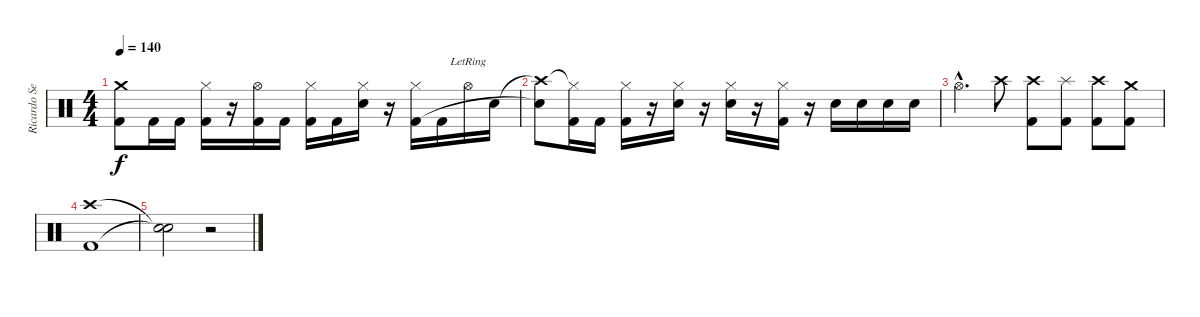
\track ("Ricardo Severino" "Ricardo Se") {instrument percussion}
\staff {score}
\articulation defaults
\ts (4 4)
\tempo 140
\clef neutral
\ks c
("Crash medium (hit)"{t} "Kick (hit) 2"{t}).8{dy f} "Kick (hit) 2".16 "Kick (hit) 2".16 ("Hi-Hat (closed)" "Kick (hit) 2").16 r.16 ("Hi-Hat (open)" "Kick (hit) 2").16 "Kick (hit) 2".16 ("Hi-Hat (closed)" "Kick (hit) 2").16 "Kick (hit) 2".16 ("Hi-Hat (closed)" "Snare (hit) 2").16 r.16 ("Hi-Hat (closed)" "Kick (hit) 2").16 "Kick (hit) 2".16 "Hi-Hat (open)"{lr}.16 "Snare (hit) 2".16 |
("Crash high (hit)"{t} "Snare (hit) 2"{t}).8 ("Hi-Hat (closed)"{t} "Kick (hit) 2").16 "Kick (hit) 2".16 ("Hi-Hat (closed)" "Kick (hit) 2").16 r.16 ("Hi-Hat (closed)" "Snare (hit) 2").16 r.16 ("Hi-Hat (closed)" "Snare (hit) 2").16 r.16 ("Hi-Hat (closed)" "Kick (hit) 2").16 r.16 "Snare (hit) 2".16 "Snare (hit) 2".16 "Snare (hit) 2".16 "Snare (hit) 2".16 |
"Hi-Hat (open)"{hac}.4{d} "Crash high (hit)".8 ("Crash high (hit)" "Kick (hit) 2").8 ("Splash (hit)" "Kick (hit) 2").8 ("Crash high (hit)" "Kick (hit) 2").8 ("Crash medium (hit)" "Kick (hit) 2").8 |
("Crash high (hit)" "Kick (hit) 2").1 |
("Snare (hit)"{t} "Snare (hit)"{t}).2 r.2
